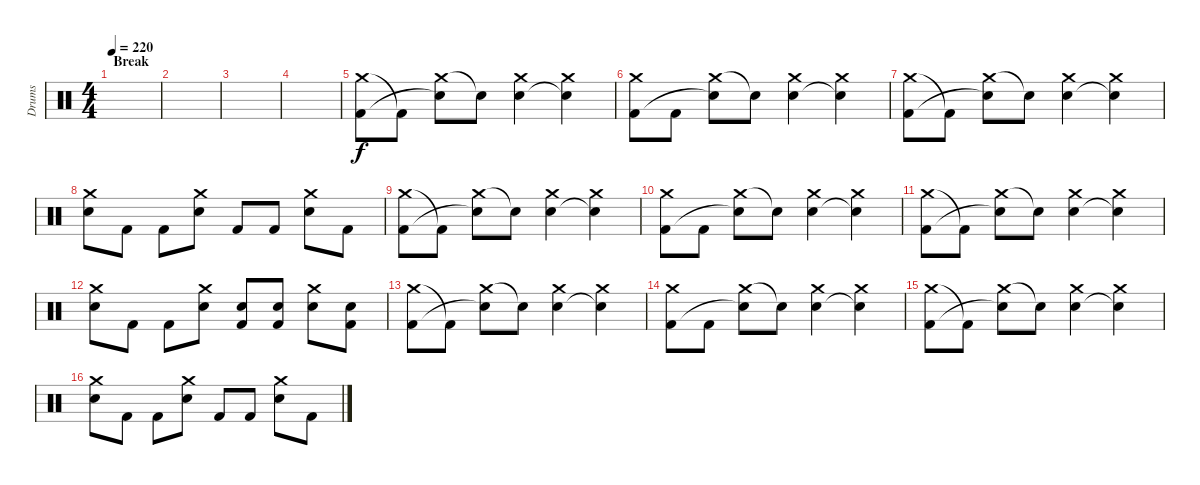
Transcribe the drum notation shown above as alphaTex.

\track ("Drums" "Drums") {instrument percussion}
\staff {score}
\articulation defaults
\ts (4 4)
\section ("" "Break")
\tempo 220
\clef neutral
\ks c
|
|
|
|
("Crash medium (hit)" "Kick (hit) 2").8 "Kick (hit) 2"{t}.8 ("Crash medium (hit)" "Snare (hit)"{t}).8 "Snare (hit)"{t}.8 ("Crash medium (hit)" "Snare (hit) 2").4 ("Crash medium (hit)" "Snare (hit)"{t}).4 |
("Crash medium (hit)" "Kick (hit) 2").8 "Kick (hit) 2".8 ("Crash medium (hit)" "Snare (hit)"{t}).8 "Snare (hit)"{t}.8 ("Crash medium (hit)" "Snare (hit) 2").4 ("Crash medium (hit)" "Snare (hit)"{t}).4 |
("Crash medium (hit)" "Kick (hit) 2").8 "Kick (hit) 2"{t}.8 ("Crash medium (hit)" "Snare (hit)"{t}).8 "Snare (hit)"{t}.8 ("Crash medium (hit)" "Snare (hit) 2").4 ("Crash medium (hit)" "Snare (hit)"{t}).4 |
("Crash medium (hit)" "Snare (hit) 2").8 "Kick (hit) 2".8 "Kick (hit) 2".8 ("Crash medium (hit)" "Snare (hit) 2").8 "Kick (hit) 2".8 "Kick (hit) 2".8 ("Crash medium (hit)" "Snare (hit) 2").8 "Kick (hit) 2".8 |
("Crash medium (hit)" "Kick (hit) 2").8 "Kick (hit) 2"{t}.8 ("Crash medium (hit)" "Snare (hit)"{t}).8 "Snare (hit)"{t}.8 ("Crash medium (hit)" "Snare (hit) 2").4 ("Crash medium (hit)" "Snare (hit)"{t}).4 |
("Crash medium (hit)" "Kick (hit) 2").8 "Kick (hit) 2".8 ("Crash medium (hit)" "Snare (hit)"{t}).8 "Snare (hit)"{t}.8 ("Crash medium (hit)" "Snare (hit) 2").4 ("Crash medium (hit)" "Snare (hit)"{t}).4 |
("Crash medium (hit)" "Kick (hit) 2").8 "Kick (hit) 2"{t}.8 ("Crash medium (hit)" "Snare (hit)"{t}).8 "Snare (hit)"{t}.8 ("Crash medium (hit)" "Snare (hit) 2").4 ("Crash medium (hit)" "Snare (hit)"{t}).4 |
("Crash medium (hit)" "Snare (hit) 2").8 "Kick (hit) 2".8 "Kick (hit) 2".8 ("Crash medium (hit)" "Snare (hit) 2").8 ("Snare (hit) 2" "Kick (hit) 2").8 ("Snare (hit) 2" "Kick (hit) 2").8 ("Crash medium (hit)" "Snare (hit) 2").8 ("Snare (hit) 2" "Kick (hit) 2").8 |
("Crash medium (hit)" "Kick (hit) 2").8 "Kick (hit) 2"{t}.8 ("Crash medium (hit)" "Snare (hit)"{t}).8 "Snare (hit)"{t}.8 ("Crash medium (hit)" "Snare (hit) 2").4 ("Crash medium (hit)" "Snare (hit)"{t}).4 |
("Crash medium (hit)" "Kick (hit) 2").8 "Kick (hit) 2".8 ("Crash medium (hit)" "Snare (hit)"{t}).8 "Snare (hit)"{t}.8 ("Crash medium (hit)" "Snare (hit) 2").4 ("Crash medium (hit)" "Snare (hit)"{t}).4 |
("Crash medium (hit)" "Kick (hit) 2").8 "Kick (hit) 2"{t}.8 ("Crash medium (hit)" "Snare (hit)"{t}).8 "Snare (hit)"{t}.8 ("Crash medium (hit)" "Snare (hit) 2").4 ("Crash medium (hit)" "Snare (hit)"{t}).4 |
("Crash medium (hit)" "Snare (hit) 2").8 "Kick (hit) 2".8 "Kick (hit) 2".8 ("Crash medium (hit)" "Snare (hit) 2").8 "Kick (hit) 2".8 "Kick (hit) 2".8 ("Crash medium (hit)" "Snare (hit) 2").8 "Kick (hit) 2".8
